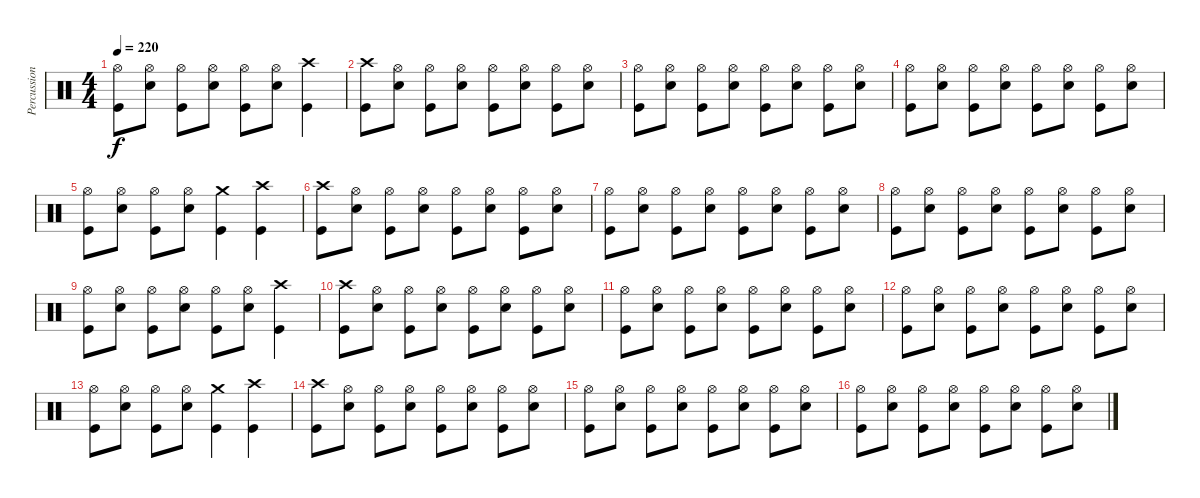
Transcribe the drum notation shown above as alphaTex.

\track ("Percussion" "Percussion") {instrument percussion}
\staff {score}
\articulation defaults
\ts (4 4)
\tempo 220
\clef neutral
\ks c
("Hi-Hat (open)" "Kick (hit)").8{dy f} ("Hi-Hat (open)" "Snare (hit) 2").8 ("Hi-Hat (open)" "Kick (hit)").8 ("Hi-Hat (open)" "Snare (hit) 2").8 ("Hi-Hat (open)" "Kick (hit)").8 ("Hi-Hat (open)" "Snare (hit) 2").8 ("Crash high (hit)" "Kick (hit)").4 |
("Crash high (hit)" "Kick (hit)").8 ("Hi-Hat (open)" "Snare (hit) 2").8 ("Hi-Hat (open)" "Kick (hit)").8 ("Hi-Hat (open)" "Snare (hit) 2").8 ("Hi-Hat (open)" "Kick (hit)").8 ("Hi-Hat (open)" "Snare (hit) 2").8 ("Hi-Hat (open)" "Kick (hit)").8 ("Hi-Hat (open)" "Snare (hit) 2").8 |
("Hi-Hat (open)" "Kick (hit)").8 ("Hi-Hat (open)" "Snare (hit) 2").8 ("Hi-Hat (open)" "Kick (hit)").8 ("Hi-Hat (open)" "Snare (hit) 2").8 ("Hi-Hat (open)" "Kick (hit)").8 ("Hi-Hat (open)" "Snare (hit) 2").8 ("Hi-Hat (open)" "Kick (hit)").8 ("Hi-Hat (open)" "Snare (hit) 2").8 |
("Hi-Hat (open)" "Kick (hit)").8 ("Hi-Hat (open)" "Snare (hit) 2").8 ("Hi-Hat (open)" "Kick (hit)").8 ("Hi-Hat (open)" "Snare (hit) 2").8 ("Hi-Hat (open)" "Kick (hit)").8 ("Hi-Hat (open)" "Snare (hit) 2").8 ("Hi-Hat (open)" "Kick (hit)").8 ("Hi-Hat (open)" "Snare (hit) 2").8 |
("Hi-Hat (open)" "Kick (hit)").8 ("Hi-Hat (open)" "Snare (hit) 2").8 ("Hi-Hat (open)" "Kick (hit)").8 ("Hi-Hat (open)" "Snare (hit) 2").8 ("Crash medium (hit)" "Kick (hit)").4 ("Crash high (hit)" "Kick (hit)").4 |
("Crash high (hit)" "Kick (hit)").8 ("Hi-Hat (open)" "Snare (hit) 2").8 ("Hi-Hat (open)" "Kick (hit)").8 ("Hi-Hat (open)" "Snare (hit) 2").8 ("Hi-Hat (open)" "Kick (hit)").8 ("Hi-Hat (open)" "Snare (hit) 2").8 ("Hi-Hat (open)" "Kick (hit)").8 ("Hi-Hat (open)" "Snare (hit) 2").8 |
("Hi-Hat (open)" "Kick (hit)").8 ("Hi-Hat (open)" "Snare (hit) 2").8 ("Hi-Hat (open)" "Kick (hit)").8 ("Hi-Hat (open)" "Snare (hit) 2").8 ("Hi-Hat (open)" "Kick (hit)").8 ("Hi-Hat (open)" "Snare (hit) 2").8 ("Hi-Hat (open)" "Kick (hit)").8 ("Hi-Hat (open)" "Snare (hit) 2").8 |
("Hi-Hat (open)" "Kick (hit)").8 ("Hi-Hat (open)" "Snare (hit) 2").8 ("Hi-Hat (open)" "Kick (hit)").8 ("Hi-Hat (open)" "Snare (hit) 2").8 ("Hi-Hat (open)" "Kick (hit)").8 ("Hi-Hat (open)" "Snare (hit) 2").8 ("Hi-Hat (open)" "Kick (hit)").8 ("Hi-Hat (open)" "Snare (hit) 2").8 |
("Hi-Hat (open)" "Kick (hit)").8 ("Hi-Hat (open)" "Snare (hit) 2").8 ("Hi-Hat (open)" "Kick (hit)").8 ("Hi-Hat (open)" "Snare (hit) 2").8 ("Hi-Hat (open)" "Kick (hit)").8 ("Hi-Hat (open)" "Snare (hit) 2").8 ("Crash high (hit)" "Kick (hit)").4 |
("Crash high (hit)" "Kick (hit)").8 ("Hi-Hat (open)" "Snare (hit) 2").8 ("Hi-Hat (open)" "Kick (hit)").8 ("Hi-Hat (open)" "Snare (hit) 2").8 ("Hi-Hat (open)" "Kick (hit)").8 ("Hi-Hat (open)" "Snare (hit) 2").8 ("Hi-Hat (open)" "Kick (hit)").8 ("Hi-Hat (open)" "Snare (hit) 2").8 |
("Hi-Hat (open)" "Kick (hit)").8 ("Hi-Hat (open)" "Snare (hit) 2").8 ("Hi-Hat (open)" "Kick (hit)").8 ("Hi-Hat (open)" "Snare (hit) 2").8 ("Hi-Hat (open)" "Kick (hit)").8 ("Hi-Hat (open)" "Snare (hit) 2").8 ("Hi-Hat (open)" "Kick (hit)").8 ("Hi-Hat (open)" "Snare (hit) 2").8 |
("Hi-Hat (open)" "Kick (hit)").8 ("Hi-Hat (open)" "Snare (hit) 2").8 ("Hi-Hat (open)" "Kick (hit)").8 ("Hi-Hat (open)" "Snare (hit) 2").8 ("Hi-Hat (open)" "Kick (hit)").8 ("Hi-Hat (open)" "Snare (hit) 2").8 ("Hi-Hat (open)" "Kick (hit)").8 ("Hi-Hat (open)" "Snare (hit) 2").8 |
("Hi-Hat (open)" "Kick (hit)").8 ("Hi-Hat (open)" "Snare (hit) 2").8 ("Hi-Hat (open)" "Kick (hit)").8 ("Hi-Hat (open)" "Snare (hit) 2").8 ("Crash medium (hit)" "Kick (hit)").4 ("Crash high (hit)" "Kick (hit)").4 |
("Crash high (hit)" "Kick (hit)").8 ("Hi-Hat (open)" "Snare (hit) 2").8 ("Hi-Hat (open)" "Kick (hit)").8 ("Hi-Hat (open)" "Snare (hit) 2").8 ("Hi-Hat (open)" "Kick (hit)").8 ("Hi-Hat (open)" "Snare (hit) 2").8 ("Hi-Hat (open)" "Kick (hit)").8 ("Hi-Hat (open)" "Snare (hit) 2").8 |
("Hi-Hat (open)" "Kick (hit)").8 ("Hi-Hat (open)" "Snare (hit) 2").8 ("Hi-Hat (open)" "Kick (hit)").8 ("Hi-Hat (open)" "Snare (hit) 2").8 ("Hi-Hat (open)" "Kick (hit)").8 ("Hi-Hat (open)" "Snare (hit) 2").8 ("Hi-Hat (open)" "Kick (hit)").8 ("Hi-Hat (open)" "Snare (hit) 2").8 |
("Hi-Hat (open)" "Kick (hit)").8 ("Hi-Hat (open)" "Snare (hit) 2").8 ("Hi-Hat (open)" "Kick (hit)").8 ("Hi-Hat (open)" "Snare (hit) 2").8 ("Hi-Hat (open)" "Kick (hit)").8 ("Hi-Hat (open)" "Snare (hit) 2").8 ("Hi-Hat (open)" "Kick (hit)").8 ("Hi-Hat (open)" "Snare (hit) 2").8
